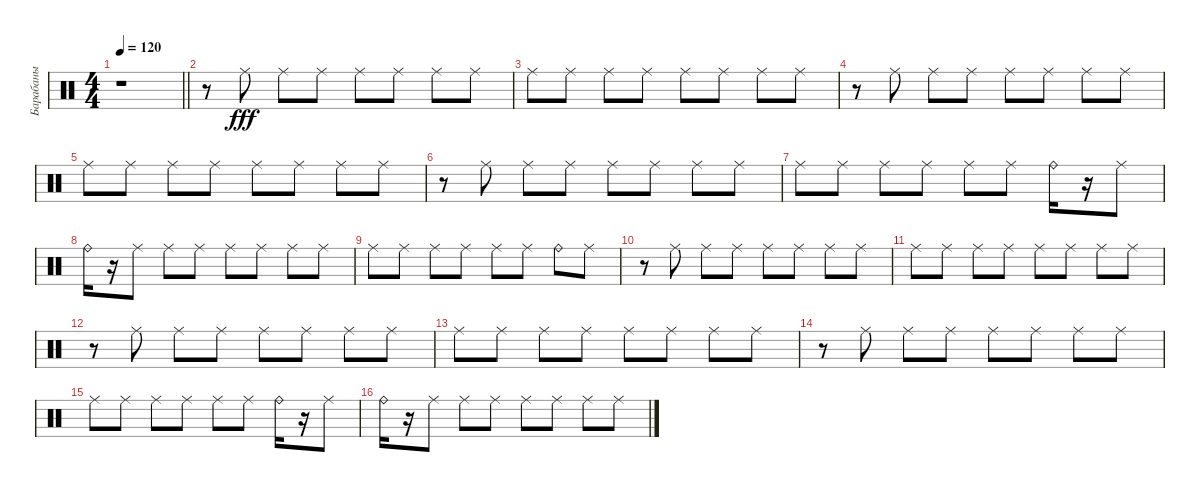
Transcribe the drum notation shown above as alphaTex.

\track ("Барабаны" "Барабаны") {instrument percussion}
\staff {score}
\articulation defaults
\ts (4 4)
\tempo 120
\clef neutral
\barLineRight lightlight
\ks c
r.1{dy fff} |
\section ("" " ")
r.8 "Ride (middle)".8 "Ride (middle)".8 "Ride (middle)".8 "Ride (middle)".8 "Ride (middle)".8 "Ride (middle)".8 "Ride (middle)".8 |
"Ride (middle)".8 "Ride (middle)".8 "Ride (middle)".8 "Ride (middle)".8 "Ride (middle)".8 "Ride (middle)".8 "Ride (middle)".8 "Ride (middle)".8 |
r.8 "Ride (middle)".8 "Ride (middle)".8 "Ride (middle)".8 "Ride (middle)".8 "Ride (middle)".8 "Ride (middle)".8 "Ride (middle)".8 |
"Ride (middle)".8 "Ride (middle)".8 "Ride (middle)".8 "Ride (middle)".8 "Ride (middle)".8 "Ride (middle)".8 "Ride (middle)".8 "Ride (middle)".8 |
r.8 "Ride (middle)".8 "Ride (middle)".8 "Ride (middle)".8 "Ride (middle)".8 "Ride (middle)".8 "Ride (middle)".8 "Ride (middle)".8 |
"Ride (middle)".8 "Ride (middle)".8 "Ride (middle)".8 "Ride (middle)".8 "Ride (middle)".8 "Ride (middle)".8 "Ride (bell)".16 r.16 "Ride (middle)".8 |
"Ride (bell)".16 r.16 "Ride (middle)".8 "Ride (middle)".8 "Ride (middle)".8 "Ride (middle)".8 "Ride (middle)".8 "Ride (middle)".8 "Ride (middle)".8 |
"Ride (middle)".8 "Ride (middle)".8 "Ride (middle)".8 "Ride (middle)".8 "Ride (middle)".8 "Ride (middle)".8 "Ride (bell)".8 "Ride (middle)".8 |
r.8 "Ride (middle)".8 "Ride (middle)".8 "Ride (middle)".8 "Ride (middle)".8 "Ride (middle)".8 "Ride (middle)".8 "Ride (middle)".8 |
"Ride (middle)".8 "Ride (middle)".8 "Ride (middle)".8 "Ride (middle)".8 "Ride (middle)".8 "Ride (middle)".8 "Ride (middle)".8 "Ride (middle)".8 |
r.8 "Ride (middle)".8 "Ride (middle)".8 "Ride (middle)".8 "Ride (middle)".8 "Ride (middle)".8 "Ride (middle)".8 "Ride (middle)".8 |
"Ride (middle)".8 "Ride (middle)".8 "Ride (middle)".8 "Ride (middle)".8 "Ride (middle)".8 "Ride (middle)".8 "Ride (middle)".8 "Ride (middle)".8 |
r.8 "Ride (middle)".8 "Ride (middle)".8 "Ride (middle)".8 "Ride (middle)".8 "Ride (middle)".8 "Ride (middle)".8 "Ride (middle)".8 |
"Ride (middle)".8 "Ride (middle)".8 "Ride (middle)".8 "Ride (middle)".8 "Ride (middle)".8 "Ride (middle)".8 "Ride (bell)".16 r.16 "Ride (middle)".8 |
"Ride (bell)".16 r.16 "Ride (middle)".8 "Ride (middle)".8 "Ride (middle)".8 "Ride (middle)".8 "Ride (middle)".8 "Ride (middle)".8 "Ride (middle)".8
